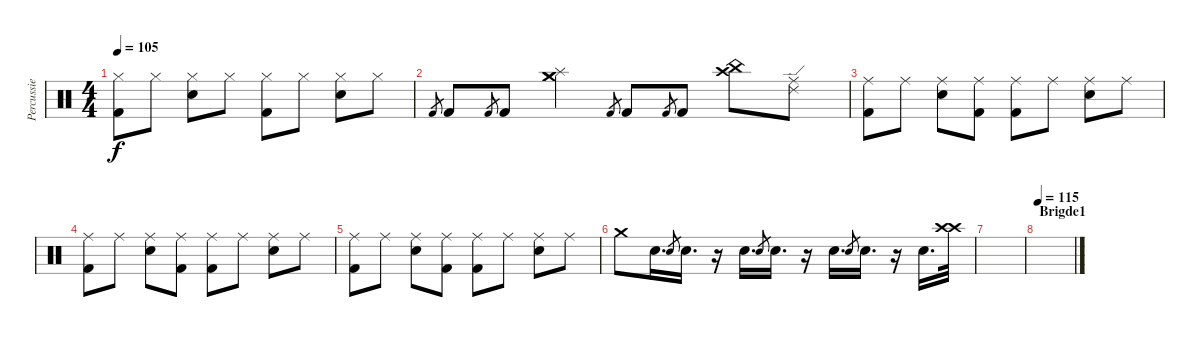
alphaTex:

\track ("Percussie" "Percussie") {instrument percussion}
\staff {score}
\articulation defaults
\ts (4 4)
\tempo 105
\clef neutral
\ks c
("Hi-Hat (closed)" "Kick (hit) 2").8{dy f} "Hi-Hat (closed)".8 ("Hi-Hat (closed)" "Snare (hit) 2").8 "Hi-Hat (closed)".8 ("Hi-Hat (closed)" "Kick (hit) 2").8 "Hi-Hat (closed)".8 ("Hi-Hat (closed)" "Snare (hit) 2").8 "Hi-Hat (closed)".8 |
"Kick (hit) 2".8{gr} "Kick (hit) 2".8 "Kick (hit) 2".8{gr} "Kick (hit) 2".8 ("Crash medium (hit)" "Crash medium (hit)" "Splash (hit)").4 "Kick (hit) 2".8{gr} "Kick (hit) 2".8 "Kick (hit) 2".8{gr} "Kick (hit) 2".8 ("Crash high (hit)" "China (hit)").8 ("Ride (middle)" "Ride (edge) 2").8 |
("Ride (middle)" "Kick (hit) 2").8 "Ride (middle)".8 ("Ride (middle)" "Snare (hit) 2").8 ("Ride (middle)" "Kick (hit) 2").8 ("Ride (middle)" "Kick (hit) 2").8 "Ride (middle)".8 ("Ride (middle)" "Snare (hit) 2").8 "Ride (middle)".8 |
("Ride (middle)" "Kick (hit) 2").8 "Ride (middle)".8 ("Ride (middle)" "Snare (hit) 2").8 ("Ride (middle)" "Kick (hit) 2").8 ("Ride (middle)" "Kick (hit) 2").8 "Ride (middle)".8 ("Ride (middle)" "Snare (hit) 2").8 "Ride (middle)".8 |
("Ride (middle)" "Kick (hit) 2").8 "Ride (middle)".8 ("Ride (middle)" "Snare (hit) 2").8 ("Ride (middle)" "Kick (hit) 2").8 ("Ride (middle)" "Kick (hit) 2").8 "Ride (middle)".8 ("Ride (middle)" "Snare (hit) 2").8 "Ride (middle)".8 |
"Crash medium (hit)".8 "Snare (hit) 2".16{d} "Snare (hit) 2".8{gr} "Snare (hit) 2".16{d} r.16 "Snare (hit) 2".16{d} "Snare (hit) 2".8{gr} "Snare (hit) 2".16{d} r.16 "Snare (hit) 2".16{d} "Snare (hit) 2".8{gr} "Snare (hit) 2".16{d} r.16 "Snare (hit) 2".16{d} ("Crash high (hit)" "Crash high (hit)").32 |
|
\section ("" "Brigde1")
\tempo 115
